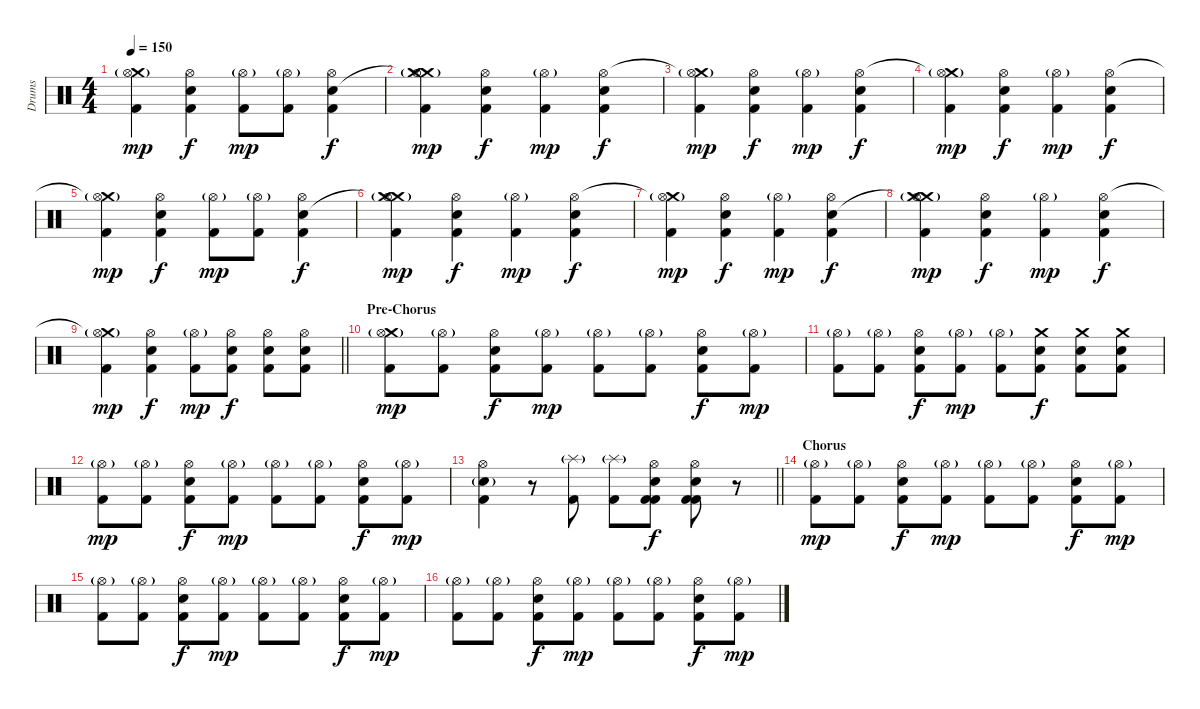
\track ("Drums" "Drums") {instrument percussion}
\staff {score}
\articulation defaults
\ts (4 4)
\tempo 150
\clef neutral
\ks c
("Crash medium (hit)"{t} "Hi-Hat (open)"{g} "Kick (hit) 2").4{dy mp} ("Hi-Hat (open)" "Electric Snare (hit)" "Kick (hit) 2").4{dy f} ("Hi-Hat (open)"{g} "Kick (hit) 2").8{dy mp} ("Hi-Hat (open)"{g} "Kick (hit) 2").8 ("Hi-Hat (open)" "Electric Snare (hit)" "Kick (hit) 2").4{dy f} |
("Crash medium (hit)" "Crash medium (hit)"{t} "Hi-Hat (open)"{g} "Kick (hit) 2").4{dy mp} ("Hi-Hat (open)" "Electric Snare (hit)" "Kick (hit) 2").4{dy f} ("Hi-Hat (open)"{g} "Kick (hit) 2").4{dy mp} ("Hi-Hat (open)" "Electric Snare (hit)" "Kick (hit) 2").4{dy f} |
("Crash medium (hit)"{t} "Hi-Hat (open)"{g} "Kick (hit) 2").4{dy mp} ("Hi-Hat (open)" "Electric Snare (hit)" "Kick (hit) 2").4{dy f} ("Hi-Hat (open)"{g} "Kick (hit) 2").4{dy mp} ("Hi-Hat (open)" "Electric Snare (hit)" "Kick (hit) 2").4{dy f} |
("Crash medium (hit)"{t} "Hi-Hat (open)"{g} "Kick (hit) 2").4{dy mp} ("Hi-Hat (open)" "Electric Snare (hit)" "Kick (hit) 2").4{dy f} ("Hi-Hat (open)"{g} "Kick (hit) 2").4{dy mp} ("Hi-Hat (open)" "Electric Snare (hit)" "Kick (hit) 2").4{dy f} |
("Crash medium (hit)"{t} "Hi-Hat (open)"{g} "Kick (hit) 2").4{dy mp} ("Hi-Hat (open)" "Electric Snare (hit)" "Kick (hit) 2").4{dy f} ("Hi-Hat (open)"{g} "Kick (hit) 2").8{dy mp} ("Hi-Hat (open)"{g} "Kick (hit) 2").8 ("Hi-Hat (open)" "Electric Snare (hit)" "Kick (hit) 2").4{dy f} |
("Crash medium (hit)" "Crash medium (hit)"{t} "Hi-Hat (open)"{g} "Kick (hit) 2").4{dy mp} ("Hi-Hat (open)" "Electric Snare (hit)" "Kick (hit) 2").4{dy f} ("Hi-Hat (open)"{g} "Kick (hit) 2").4{dy mp} ("Hi-Hat (open)" "Electric Snare (hit)" "Kick (hit) 2").4{dy f} |
("Crash medium (hit)"{t} "Hi-Hat (open)"{g} "Kick (hit) 2").4{dy mp} ("Hi-Hat (open)" "Electric Snare (hit)" "Kick (hit) 2").4{dy f} ("Hi-Hat (open)"{g} "Kick (hit) 2").4{dy mp} ("Hi-Hat (open)" "Electric Snare (hit)" "Kick (hit) 2").4{dy f} |
("Crash medium (hit)" "Crash medium (hit)"{t} "Hi-Hat (open)"{g} "Kick (hit) 2").4{dy mp} ("Hi-Hat (open)" "Electric Snare (hit)" "Kick (hit) 2").4{dy f} ("Hi-Hat (open)"{g} "Kick (hit) 2").4{dy mp} ("Hi-Hat (open)" "Electric Snare (hit)" "Kick (hit) 2").4{dy f} |
\barLineRight lightlight
("Crash medium (hit)"{t} "Hi-Hat (open)"{g} "Kick (hit) 2").4{dy mp} ("Hi-Hat (open)" "Electric Snare (hit)" "Kick (hit) 2").4{dy f} ("Hi-Hat (open)"{g} "Kick (hit) 2").8{dy mp} ("Hi-Hat (open)" "Electric Snare (hit)" "Kick (hit) 2").8{dy f} ("Hi-Hat (open)" "Electric Snare (hit)" "Kick (hit) 2").8 ("Hi-Hat (open)" "Electric Snare (hit)" "Kick (hit) 2").8 |
\section ("" "Pre-Chorus")
("Crash medium (hit)" "Hi-Hat (open)"{g} "Kick (hit) 2").8{dy mp} ("Hi-Hat (open)"{g} "Kick (hit) 2").8 ("Hi-Hat (open)" "Electric Snare (hit)" "Kick (hit) 2").8{dy f} ("Hi-Hat (open)"{g} "Kick (hit) 2").8{dy mp} ("Hi-Hat (open)"{g} "Kick (hit) 2").8 ("Hi-Hat (open)"{g} "Kick (hit) 2").8 ("Hi-Hat (open)" "Electric Snare (hit)" "Kick (hit) 2").8{dy f} ("Hi-Hat (open)"{g} "Kick (hit) 2").8{dy mp} |
("Hi-Hat (open)"{g} "Kick (hit) 2").8 ("Hi-Hat (open)"{g} "Kick (hit) 2").8 ("Hi-Hat (open)" "Electric Snare (hit)" "Kick (hit) 2").8{dy f} ("Hi-Hat (open)"{g} "Kick (hit) 2").8{dy mp} ("Hi-Hat (open)"{g} "Kick (hit) 2").8 ("Crash medium (hit)" "Electric Snare (hit)" "Kick (hit) 2").8{dy f} ("Crash medium (hit)" "Electric Snare (hit)" "Kick (hit) 2").8 ("Crash medium (hit)" "Electric Snare (hit)" "Kick (hit) 2").8 |
("Hi-Hat (open)"{g} "Kick (hit) 2").8{dy mp} ("Hi-Hat (open)"{g} "Kick (hit) 2").8 ("Hi-Hat (open)" "Electric Snare (hit)" "Kick (hit) 2").8{dy f} ("Hi-Hat (open)"{g} "Kick (hit) 2").8{dy mp} ("Hi-Hat (open)"{g} "Kick (hit) 2").8 ("Hi-Hat (open)"{g} "Kick (hit) 2").8 ("Hi-Hat (open)" "Electric Snare (hit)" "Kick (hit) 2").8{dy f} ("Hi-Hat (open)"{g} "Kick (hit) 2").8{dy mp} |
\barLineRight lightlight
("Hi-Hat (open)" "Electric Snare (hit)"{g} "Kick (hit) 2").4 r.8 ("Splash (hit)"{g} "Kick (hit) 2").8 ("Splash (hit)"{g} "Kick (hit) 2").8 ("Hi-Hat (open)" "Electric Snare (hit)" "Kick (hit) 2" "Kick (hit) 2").8{dy f} ("Hi-Hat (open)" "Electric Snare (hit)" "Kick (hit) 2" "Kick (hit) 2").8 r.8 |
\section ("" "Chorus")
("Hi-Hat (open)"{g} "Kick (hit) 2").8{dy mp} ("Hi-Hat (open)"{g} "Kick (hit) 2").8 ("Hi-Hat (open)" "Electric Snare (hit)" "Kick (hit) 2").8{dy f} ("Hi-Hat (open)"{g} "Kick (hit) 2").8{dy mp} ("Hi-Hat (open)"{g} "Kick (hit) 2").8 ("Hi-Hat (open)"{g} "Kick (hit) 2").8 ("Hi-Hat (open)" "Electric Snare (hit)" "Kick (hit) 2").8{dy f} ("Hi-Hat (open)"{g} "Kick (hit) 2").8{dy mp} |
("Hi-Hat (open)"{g} "Kick (hit) 2").8 ("Hi-Hat (open)"{g} "Kick (hit) 2").8 ("Hi-Hat (open)" "Electric Snare (hit)" "Kick (hit) 2").8{dy f} ("Hi-Hat (open)"{g} "Kick (hit) 2").8{dy mp} ("Hi-Hat (open)"{g} "Kick (hit) 2").8 ("Hi-Hat (open)"{g} "Kick (hit) 2").8 ("Hi-Hat (open)" "Electric Snare (hit)" "Kick (hit) 2").8{dy f} ("Hi-Hat (open)"{g} "Kick (hit) 2").8{dy mp} |
("Hi-Hat (open)"{g} "Kick (hit) 2").8 ("Hi-Hat (open)"{g} "Kick (hit) 2").8 ("Hi-Hat (open)" "Electric Snare (hit)" "Kick (hit) 2").8{dy f} ("Hi-Hat (open)"{g} "Kick (hit) 2").8{dy mp} ("Hi-Hat (open)"{g} "Kick (hit) 2").8 ("Hi-Hat (open)"{g} "Kick (hit) 2").8 ("Hi-Hat (open)" "Electric Snare (hit)" "Kick (hit) 2").8{dy f} ("Hi-Hat (open)"{g} "Kick (hit) 2").8{dy mp}
